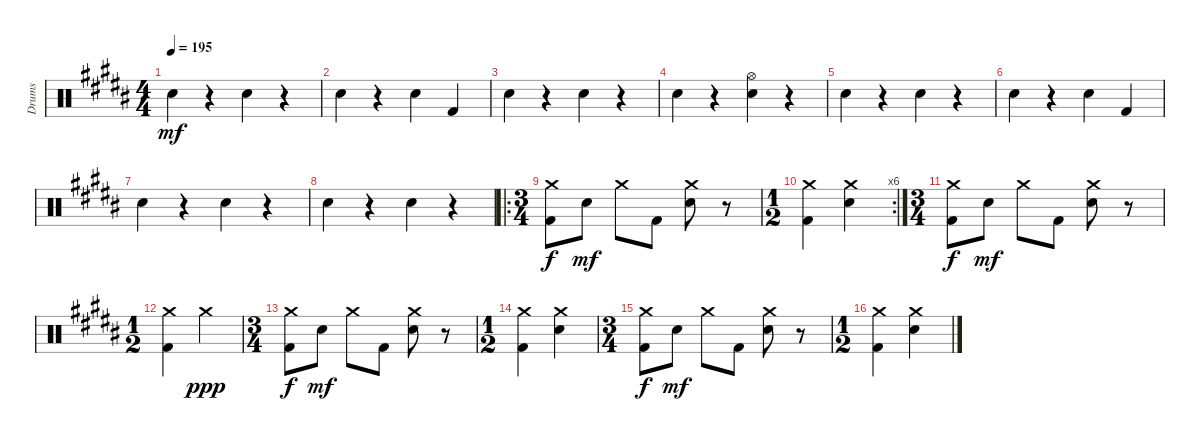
\track ("Drums" "Drums") {instrument percussion}
\staff {score}
\articulation defaults
\ts (4 4)
\tempo 195
\clef neutral
\ks b "Electric Snare (hit)".4{dy mf}
r.4 "Electric Snare (hit)".4 r.4 |
"Electric Snare (hit)".4 r.4 "Electric Snare (hit)".4 "Kick (hit) 2".4 |
"Electric Snare (hit)".4 r.4 "Electric Snare (hit)".4 r.4 |
"Electric Snare (hit)".4 r.4 ("Hi-Hat (open)" "Electric Snare (hit)").4 r.4 |
"Electric Snare (hit)".4 r.4 "Electric Snare (hit)".4 r.4 |
"Electric Snare (hit)".4 r.4 "Electric Snare (hit)".4 "Kick (hit) 2".4 |
"Electric Snare (hit)".4 r.4 "Electric Snare (hit)".4 r.4 |
"Electric Snare (hit)".4 r.4 "Electric Snare (hit)".4 r.4 |
\ro
\ts (3 4)
("Crash medium (hit)" "Kick (hit) 2").8{dy f} "Electric Snare (hit)".8{dy mf} "Crash medium (hit)".8 "Kick (hit) 2".8 ("Crash medium (hit)" "Electric Snare (hit)").8 r.8 |
\rc 6
\ts (1 2)
("Crash medium (hit)" "Kick (hit) 2").4 ("Crash medium (hit)" "Electric Snare (hit)").4 |
\ts (3 4)
("Crash medium (hit)" "Kick (hit) 2").8{dy f} "Electric Snare (hit)".8{dy mf} "Crash medium (hit)".8 "Kick (hit) 2".8 ("Crash medium (hit)" "Electric Snare (hit)").8 r.8 |
\ts (1 2)
("Crash medium (hit)" "Kick (hit) 2").4 "Crash medium (hit)".4{dy ppp} |
\ts (3 4)
("Crash medium (hit)" "Kick (hit) 2").8{dy f} "Electric Snare (hit)".8{dy mf} "Crash medium (hit)".8 "Kick (hit) 2".8 ("Crash medium (hit)" "Electric Snare (hit)").8 r.8 |
\ts (1 2)
("Crash medium (hit)" "Kick (hit) 2").4 ("Crash medium (hit)" "Electric Snare (hit)").4 |
\ts (3 4)
("Crash medium (hit)" "Kick (hit) 2").8{dy f} "Electric Snare (hit)".8{dy mf} "Crash medium (hit)".8 "Kick (hit) 2".8 ("Crash medium (hit)" "Electric Snare (hit)").8 r.8 |
\ts (1 2)
("Crash medium (hit)" "Kick (hit) 2").4 ("Crash medium (hit)" "Electric Snare (hit)").4
